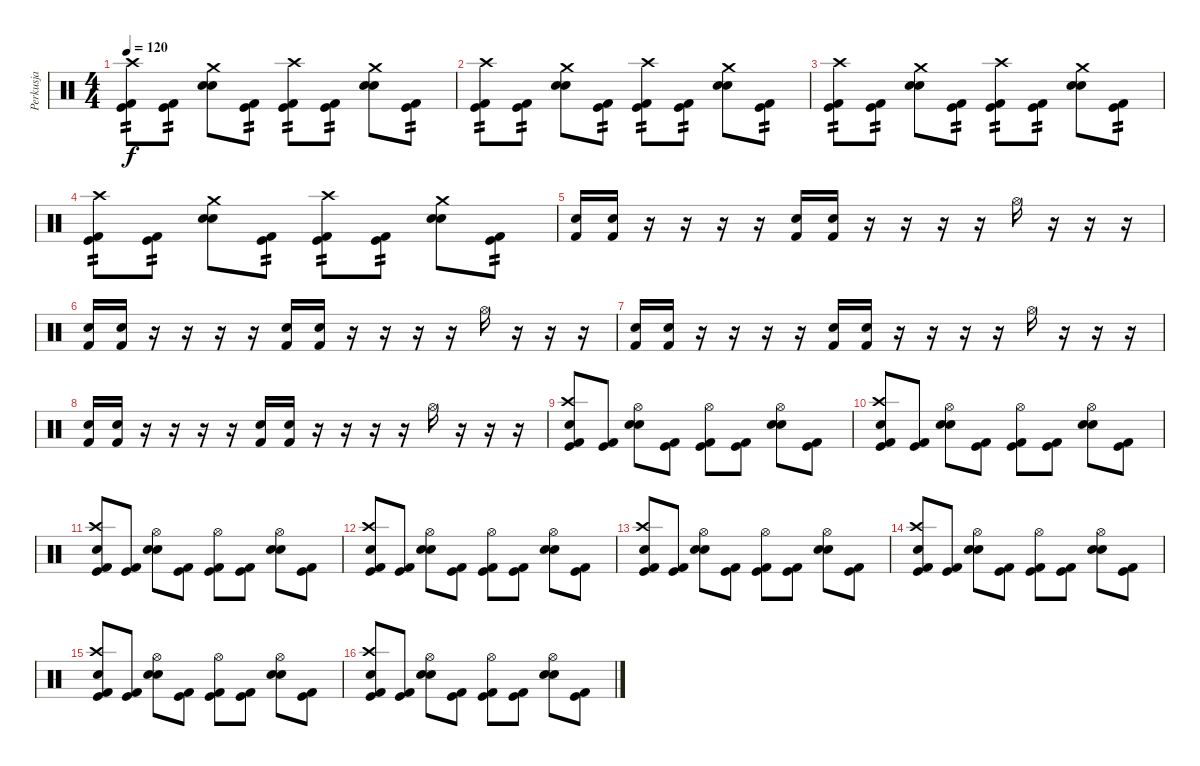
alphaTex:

\track ("Perkusja" "Perkusja") {instrument percussion}
\staff {score}
\articulation defaults
\ts (4 4)
\tempo 120
\clef neutral
\ks c
("Kick (hit) 2" "Kick (hit)" "Crash high (hit)").8{tp 2 dy f} ("Kick (hit) 2" "Kick (hit)").8{tp 2} ("Snare (hit) 2" "Electric Snare (hit)" "Crash medium (hit)").8 ("Kick (hit) 2" "Kick (hit)").8{tp 2} ("Kick (hit) 2" "Kick (hit)" "Crash high (hit)").8{tp 2} ("Kick (hit) 2" "Kick (hit)").8{tp 2} ("Snare (hit) 2" "Electric Snare (hit)" "Crash medium (hit)").8 ("Kick (hit) 2" "Kick (hit)").8{tp 2} |
("Kick (hit) 2" "Kick (hit)" "Crash high (hit)").8{tp 2} ("Kick (hit) 2" "Kick (hit)").8{tp 2} ("Snare (hit) 2" "Electric Snare (hit)" "Crash medium (hit)").8 ("Kick (hit) 2" "Kick (hit)").8{tp 2} ("Kick (hit) 2" "Kick (hit)" "Crash high (hit)").8{tp 2} ("Kick (hit) 2" "Kick (hit)").8{tp 2} ("Snare (hit) 2" "Electric Snare (hit)" "Crash medium (hit)").8 ("Kick (hit) 2" "Kick (hit)").8{tp 2} |
("Kick (hit) 2" "Kick (hit)" "Crash high (hit)").8{tp 2} ("Kick (hit) 2" "Kick (hit)").8{tp 2} ("Snare (hit) 2" "Electric Snare (hit)" "Crash medium (hit)").8 ("Kick (hit) 2" "Kick (hit)").8{tp 2} ("Kick (hit) 2" "Kick (hit)" "Crash high (hit)").8{tp 2} ("Kick (hit) 2" "Kick (hit)").8{tp 2} ("Snare (hit) 2" "Electric Snare (hit)" "Crash medium (hit)").8 ("Kick (hit) 2" "Kick (hit)").8{tp 2} |
("Kick (hit) 2" "Kick (hit)" "Crash high (hit)").8{tp 2} ("Kick (hit) 2" "Kick (hit)").8{tp 2} ("Snare (hit) 2" "Electric Snare (hit)" "Crash medium (hit)").8 ("Kick (hit) 2" "Kick (hit)").8{tp 2} ("Kick (hit) 2" "Kick (hit)" "Crash high (hit)").8{tp 2} ("Kick (hit) 2" "Kick (hit)").8{tp 2} ("Snare (hit) 2" "Electric Snare (hit)" "Crash medium (hit)").8 ("Kick (hit) 2" "Kick (hit)").8{tp 2} |
("Kick (hit) 2" "Electric Snare (hit)").16 ("Kick (hit) 2" "Electric Snare (hit)").16 r.16 r.16 r.16 r.16 ("Kick (hit) 2" "Electric Snare (hit)").16 ("Kick (hit) 2" "Electric Snare (hit)").16 r.16 r.16 r.16 r.16 "Hi-Hat (open)".16 r.16 r.16 r.16 |
("Kick (hit) 2" "Electric Snare (hit)").16 ("Kick (hit) 2" "Electric Snare (hit)").16 r.16 r.16 r.16 r.16 ("Kick (hit) 2" "Electric Snare (hit)").16 ("Kick (hit) 2" "Electric Snare (hit)").16 r.16 r.16 r.16 r.16 "Hi-Hat (open)".16 r.16 r.16 r.16 |
("Snare (hit) 2" "Kick (hit) 2").16 ("Snare (hit) 2" "Kick (hit) 2").16 r.16 r.16 r.16 r.16 ("Snare (hit) 2" "Kick (hit) 2").16 ("Snare (hit) 2" "Kick (hit) 2").16 r.16 r.16 r.16 r.16 "Hi-Hat (open)".16 r.16 r.16 r.16 |
("Snare (hit) 2" "Kick (hit) 2").16 ("Snare (hit) 2" "Kick (hit) 2").16 r.16 r.16 r.16 r.16 ("Snare (hit) 2" "Kick (hit) 2").16 ("Snare (hit) 2" "Kick (hit) 2").16 r.16 r.16 r.16 r.16 "Hi-Hat (open)".16 r.16 r.16 r.16 |
("Crash high (hit)" "Snare (hit) 2" "Kick (hit) 2" "Kick (hit)").8 ("Kick (hit) 2" "Kick (hit)").8 ("Snare (hit) 2" "Hi-Hat (open)" "Electric Snare (hit)").8 ("Kick (hit) 2" "Kick (hit)").8 ("Kick (hit) 2" "Hi-Hat (open)" "Kick (hit)").8 ("Kick (hit) 2" "Kick (hit)").8 ("Snare (hit) 2" "Hi-Hat (open)" "Electric Snare (hit)").8 ("Kick (hit) 2" "Kick (hit)").8 |
("Crash high (hit)" "Snare (hit) 2" "Kick (hit) 2" "Kick (hit)").8 ("Kick (hit) 2" "Kick (hit)").8 ("Snare (hit) 2" "Hi-Hat (open)" "Electric Snare (hit)").8 ("Kick (hit) 2" "Kick (hit)").8 ("Kick (hit) 2" "Hi-Hat (open)" "Kick (hit)").8 ("Kick (hit) 2" "Kick (hit)").8 ("Snare (hit) 2" "Hi-Hat (open)" "Electric Snare (hit)").8 ("Kick (hit) 2" "Kick (hit)").8 |
("Crash high (hit)" "Snare (hit) 2" "Kick (hit) 2" "Kick (hit)").8 ("Kick (hit) 2" "Kick (hit)").8 ("Snare (hit) 2" "Hi-Hat (open)" "Electric Snare (hit)").8 ("Kick (hit) 2" "Kick (hit)").8 ("Kick (hit) 2" "Hi-Hat (open)" "Kick (hit)").8 ("Kick (hit) 2" "Kick (hit)").8 ("Snare (hit) 2" "Hi-Hat (open)" "Electric Snare (hit)").8 ("Kick (hit) 2" "Kick (hit)").8 |
("Crash high (hit)" "Snare (hit) 2" "Kick (hit) 2" "Kick (hit)").8 ("Kick (hit) 2" "Kick (hit)").8 ("Snare (hit) 2" "Hi-Hat (open)" "Electric Snare (hit)").8 ("Kick (hit) 2" "Kick (hit)").8 ("Kick (hit) 2" "Hi-Hat (open)" "Kick (hit)").8 ("Kick (hit) 2" "Kick (hit)").8 ("Snare (hit) 2" "Hi-Hat (open)" "Electric Snare (hit)").8 ("Kick (hit) 2" "Kick (hit)").8 |
("Crash high (hit)" "Snare (hit) 2" "Kick (hit) 2" "Kick (hit)").8 ("Kick (hit) 2" "Kick (hit)").8 ("Snare (hit) 2" "Hi-Hat (open)" "Electric Snare (hit)").8 ("Kick (hit) 2" "Kick (hit)").8 ("Kick (hit) 2" "Hi-Hat (open)" "Kick (hit)").8 ("Kick (hit) 2" "Kick (hit)").8 ("Snare (hit) 2" "Hi-Hat (open)" "Electric Snare (hit)").8 ("Kick (hit) 2" "Kick (hit)").8 |
("Crash high (hit)" "Snare (hit) 2" "Kick (hit) 2" "Kick (hit)").8 ("Kick (hit) 2" "Kick (hit)").8 ("Snare (hit) 2" "Hi-Hat (open)" "Electric Snare (hit)").8 ("Kick (hit) 2" "Kick (hit)").8 ("Kick (hit) 2" "Hi-Hat (open)" "Kick (hit)").8 ("Kick (hit) 2" "Kick (hit)").8 ("Snare (hit) 2" "Hi-Hat (open)" "Electric Snare (hit)").8 ("Kick (hit) 2" "Kick (hit)").8 |
("Crash high (hit)" "Snare (hit) 2" "Kick (hit) 2" "Kick (hit)").8 ("Kick (hit) 2" "Kick (hit)").8 ("Snare (hit) 2" "Hi-Hat (open)" "Electric Snare (hit)").8 ("Kick (hit) 2" "Kick (hit)").8 ("Kick (hit) 2" "Hi-Hat (open)" "Kick (hit)").8 ("Kick (hit) 2" "Kick (hit)").8 ("Snare (hit) 2" "Hi-Hat (open)" "Electric Snare (hit)").8 ("Kick (hit) 2" "Kick (hit)").8 |
("Crash high (hit)" "Snare (hit) 2" "Kick (hit) 2" "Kick (hit)").8 ("Kick (hit) 2" "Kick (hit)").8 ("Snare (hit) 2" "Hi-Hat (open)" "Electric Snare (hit)").8 ("Kick (hit) 2" "Kick (hit)").8 ("Kick (hit) 2" "Hi-Hat (open)" "Kick (hit)").8 ("Kick (hit) 2" "Kick (hit)").8 ("Snare (hit) 2" "Hi-Hat (open)" "Electric Snare (hit)").8 ("Kick (hit) 2" "Kick (hit)").8
